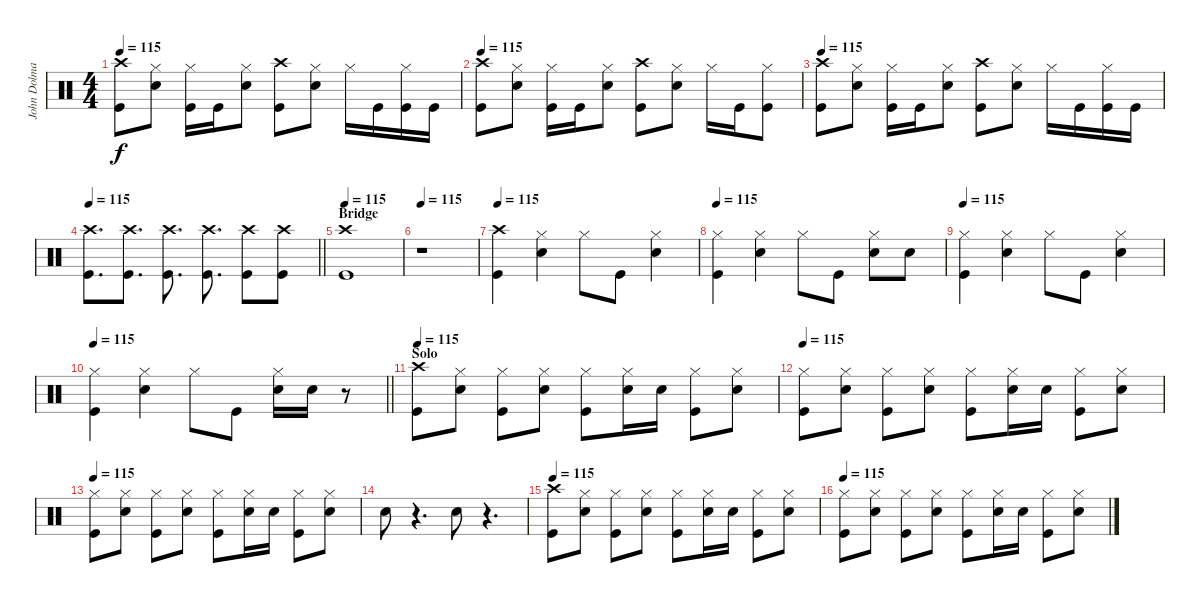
\track ("John Dolmayan " "John Dolma") {instrument percussion}
\staff {score}
\articulation defaults
\ts (4 4)
\tempo 115
\clef neutral
\ks c
("Crash high (hit)" "Kick (hit)").8{dy f} ("Hi-Hat (closed)" "Snare (hit) 2").8 ("Hi-Hat (closed)" "Kick (hit)").16 "Kick (hit)".16 ("Hi-Hat (closed)" "Snare (hit) 2").8 ("Crash high (hit)" "Kick (hit)").8 ("Hi-Hat (closed)" "Snare (hit) 2").8 "Hi-Hat (closed)".16 "Kick (hit)".16 ("Hi-Hat (closed)" "Kick (hit)").16 "Kick (hit)".16 |
\tempo 115
("Crash high (hit)" "Kick (hit)").8 ("Hi-Hat (closed)" "Snare (hit) 2").8 ("Hi-Hat (closed)" "Kick (hit)").16 "Kick (hit)".16 ("Hi-Hat (closed)" "Snare (hit) 2").8 ("Crash high (hit)" "Kick (hit)").8 ("Hi-Hat (closed)" "Snare (hit) 2").8 "Hi-Hat (closed)".16 "Kick (hit)".16 ("Hi-Hat (closed)" "Kick (hit)").8 |
\tempo 115
("Crash high (hit)" "Kick (hit)").8 ("Hi-Hat (closed)" "Snare (hit) 2").8 ("Hi-Hat (closed)" "Kick (hit)").16 "Kick (hit)".16 ("Hi-Hat (closed)" "Snare (hit) 2").8 ("Crash high (hit)" "Kick (hit)").8 ("Hi-Hat (closed)" "Snare (hit) 2").8 "Hi-Hat (closed)".16 "Kick (hit)".16 ("Hi-Hat (closed)" "Kick (hit)").16 "Kick (hit)".16 |
\tempo 115
\barLineRight lightlight
("Crash high (hit)" "Kick (hit)").8{d} ("Crash high (hit)" "Kick (hit)").8{d} ("Crash high (hit)" "Kick (hit)").8{d} ("Crash high (hit)" "Kick (hit)").8{d} ("Crash high (hit)" "Kick (hit)").8 ("Crash high (hit)" "Kick (hit)").8 |
\section ("" "Bridge")
\tempo 115
("Crash high (hit)" "Kick (hit)").1 |
\tempo 115
r.1 |
\tempo 115
("Crash high (hit)" "Kick (hit)").4 ("Hi-Hat (closed)" "Snare (hit) 2").4 "Hi-Hat (closed)".8 "Kick (hit)".8 ("Hi-Hat (closed)" "Snare (hit) 2").4 |
\tempo 115
("Hi-Hat (closed)" "Kick (hit)").4 ("Hi-Hat (closed)" "Snare (hit) 2").4 "Hi-Hat (closed)".8 "Kick (hit)".8 ("Hi-Hat (closed)" "Snare (hit) 2").8 "Snare (hit) 2".8 |
\tempo 115
("Hi-Hat (closed)" "Kick (hit)").4 ("Hi-Hat (closed)" "Snare (hit) 2").4 "Hi-Hat (closed)".8 "Kick (hit)".8 ("Hi-Hat (closed)" "Snare (hit) 2").4 |
\tempo 115
\barLineRight lightlight
("Hi-Hat (closed)" "Kick (hit)").4 ("Hi-Hat (closed)" "Snare (hit) 2").4 "Hi-Hat (closed)".8 "Kick (hit)".8 ("Hi-Hat (closed)" "Snare (hit) 2").16 "Snare (hit) 2".16 r.8 |
\section ("" "Solo")
\tempo 115
("Crash high (hit)" "Kick (hit)").8 ("Hi-Hat (closed)" "Snare (hit) 2").8 ("Hi-Hat (closed)" "Kick (hit)").8 ("Hi-Hat (closed)" "Snare (hit) 2").8 ("Hi-Hat (closed)" "Kick (hit)").8 ("Hi-Hat (closed)" "Snare (hit) 2").16 "Snare (hit) 2".16 ("Hi-Hat (closed)" "Kick (hit)").8 ("Hi-Hat (closed)" "Snare (hit) 2").8 |
\tempo 115
("Hi-Hat (closed)" "Kick (hit)").8 ("Hi-Hat (closed)" "Snare (hit) 2").8 ("Hi-Hat (closed)" "Kick (hit)").8 ("Hi-Hat (closed)" "Snare (hit) 2").8 ("Hi-Hat (closed)" "Kick (hit)").8 ("Hi-Hat (closed)" "Snare (hit) 2").16 "Snare (hit) 2".16 ("Hi-Hat (closed)" "Kick (hit)").8 ("Hi-Hat (closed)" "Snare (hit) 2").8 |
\tempo 115
("Hi-Hat (closed)" "Kick (hit)").8 ("Hi-Hat (closed)" "Snare (hit) 2").8 ("Hi-Hat (closed)" "Kick (hit)").8 ("Hi-Hat (closed)" "Snare (hit) 2").8 ("Hi-Hat (closed)" "Kick (hit)").8 ("Hi-Hat (closed)" "Snare (hit) 2").16 "Snare (hit) 2".16 ("Hi-Hat (closed)" "Kick (hit)").8 ("Hi-Hat (closed)" "Snare (hit) 2").8 |
"Snare (hit) 2".8 r.4{d} "Snare (hit) 2".8 r.4{d} |
\tempo 115
("Crash high (hit)" "Kick (hit)").8 ("Hi-Hat (closed)" "Snare (hit) 2").8 ("Hi-Hat (closed)" "Kick (hit)").8 ("Hi-Hat (closed)" "Snare (hit) 2").8 ("Hi-Hat (closed)" "Kick (hit)").8 ("Hi-Hat (closed)" "Snare (hit) 2").16 "Snare (hit) 2".16 ("Hi-Hat (closed)" "Kick (hit)").8 ("Hi-Hat (closed)" "Snare (hit) 2").8 |
\tempo 115
("Hi-Hat (closed)" "Kick (hit)").8 ("Hi-Hat (closed)" "Snare (hit) 2").8 ("Hi-Hat (closed)" "Kick (hit)").8 ("Hi-Hat (closed)" "Snare (hit) 2").8 ("Hi-Hat (closed)" "Kick (hit)").8 ("Hi-Hat (closed)" "Snare (hit) 2").16 "Snare (hit) 2".16 ("Hi-Hat (closed)" "Kick (hit)").8 ("Hi-Hat (closed)" "Snare (hit) 2").8
